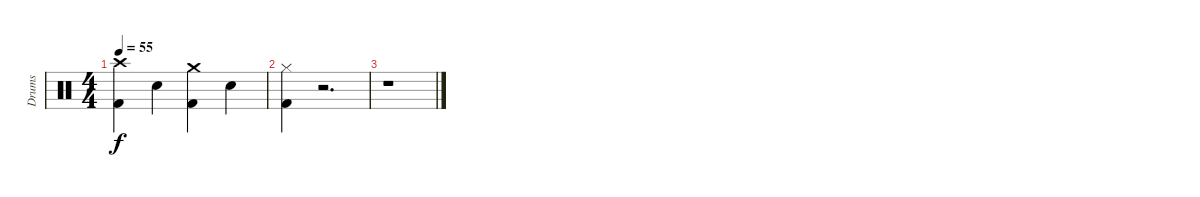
\track ("Drums" "Drums") {instrument percussion}
\staff {score}
\articulation defaults
\ts (4 4)
\tempo 55
\clef neutral
\ks c
("Crash high (hit)" "Kick (hit) 2").4{dy f} "Snare (hit) 2".4 ("Crash medium (hit)" "Kick (hit) 2").4 "Snare (hit) 2".4 |
("Hi-Hat (closed)" "Kick (hit) 2").4 r.2{d} |
r.1
